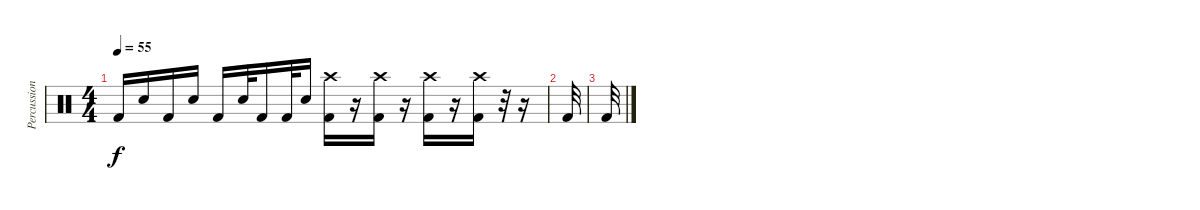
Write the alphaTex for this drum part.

\track ("Percussion" "Percussion") {instrument percussion}
\staff {score}
\articulation defaults
\ts (4 4)
\tempo 55
\clef neutral
\ks c "Kick (hit) 2".16{dy f} "Snare (hit) 2".16 "Kick (hit) 2".16 "Snare (hit) 2".16 "Kick (hit) 2".16 "Snare (hit) 2".32 "Kick (hit) 2".16 "Kick (hit) 2".32 "Snare (hit) 2".16
("Kick (hit) 2" "Crash high (hit)").16 r.16 ("Kick (hit) 2" "Crash high (hit)").16 r.16 ("Kick (hit) 2" "Crash high (hit)").16 r.16 ("Kick (hit) 2" "Crash high (hit)").16 r.32 r.16 |
"Kick (hit) 2".32 |
"Kick (hit) 2".32
